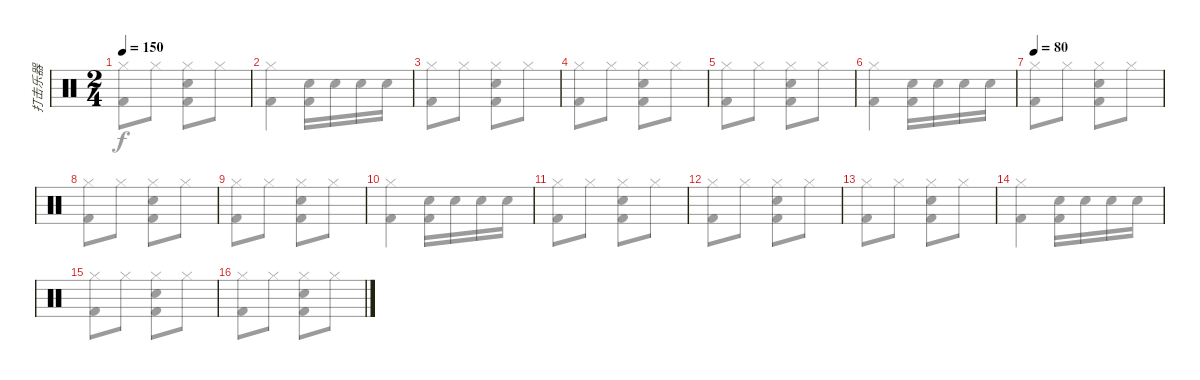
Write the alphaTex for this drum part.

\track ("打击乐器" "打击乐器") {instrument percussion bank 10}
\staff {score}
\articulation defaults
\voice
\ts (2 4)
\tempo 150
\clef neutral
\ks c
|
|
|
|
|
|
\tempo 80
|
|
|
|
|
|
|
|
|
\voice
\clef neutral
\ks c
("Hi-Hat (closed)" "Kick (hit) 2").8{dy f} "Hi-Hat (closed)".8 ("Hi-Hat (closed)" "Electric Snare (hit)" "Kick (hit) 2").8 "Hi-Hat (closed)".8 |
("Hi-Hat (closed)" "Kick (hit) 2").4 ("Electric Snare (hit)" "Kick (hit) 2").16 "Electric Snare (hit)".16 "Electric Snare (hit)".16 "Electric Snare (hit)".16 |
("Hi-Hat (closed)" "Kick (hit) 2").8 "Hi-Hat (closed)".8 ("Hi-Hat (closed)" "Electric Snare (hit)" "Kick (hit) 2").8 "Hi-Hat (closed)".8 |
("Hi-Hat (closed)" "Kick (hit) 2").8 "Hi-Hat (closed)".8 ("Hi-Hat (closed)" "Electric Snare (hit)" "Kick (hit) 2").8 "Hi-Hat (closed)".8 |
("Hi-Hat (closed)" "Kick (hit) 2").8 "Hi-Hat (closed)".8 ("Hi-Hat (closed)" "Electric Snare (hit)" "Kick (hit) 2").8 "Hi-Hat (closed)".8 |
("Hi-Hat (closed)" "Kick (hit) 2").4 ("Electric Snare (hit)" "Kick (hit) 2").16 "Electric Snare (hit)".16 "Electric Snare (hit)".16 "Electric Snare (hit)".16 |
("Hi-Hat (closed)" "Kick (hit) 2").8 "Hi-Hat (closed)".8 ("Hi-Hat (closed)" "Electric Snare (hit)" "Kick (hit) 2").8 "Hi-Hat (closed)".8 |
("Hi-Hat (closed)" "Kick (hit) 2").8 "Hi-Hat (closed)".8 ("Hi-Hat (closed)" "Electric Snare (hit)" "Kick (hit) 2").8 "Hi-Hat (closed)".8 |
("Hi-Hat (closed)" "Kick (hit) 2").8 "Hi-Hat (closed)".8 ("Hi-Hat (closed)" "Electric Snare (hit)" "Kick (hit) 2").8 "Hi-Hat (closed)".8 |
("Hi-Hat (closed)" "Kick (hit) 2").4 ("Electric Snare (hit)" "Kick (hit) 2").16 "Electric Snare (hit)".16 "Electric Snare (hit)".16 "Electric Snare (hit)".16 |
("Hi-Hat (closed)" "Kick (hit) 2").8 "Hi-Hat (closed)".8 ("Hi-Hat (closed)" "Electric Snare (hit)" "Kick (hit) 2").8 "Hi-Hat (closed)".8 |
("Hi-Hat (closed)" "Kick (hit) 2").8 "Hi-Hat (closed)".8 ("Hi-Hat (closed)" "Electric Snare (hit)" "Kick (hit) 2").8 "Hi-Hat (closed)".8 |
("Hi-Hat (closed)" "Kick (hit) 2").8 "Hi-Hat (closed)".8 ("Hi-Hat (closed)" "Electric Snare (hit)" "Kick (hit) 2").8 "Hi-Hat (closed)".8 |
("Hi-Hat (closed)" "Kick (hit) 2").4 ("Electric Snare (hit)" "Kick (hit) 2").16 "Electric Snare (hit)".16 "Electric Snare (hit)".16 "Electric Snare (hit)".16 |
("Hi-Hat (closed)" "Kick (hit) 2").8 "Hi-Hat (closed)".8 ("Hi-Hat (closed)" "Electric Snare (hit)" "Kick (hit) 2").8 "Hi-Hat (closed)".8 |
("Hi-Hat (closed)" "Kick (hit) 2").8 "Hi-Hat (closed)".8 ("Hi-Hat (closed)" "Electric Snare (hit)" "Kick (hit) 2").8 "Hi-Hat (closed)".8
